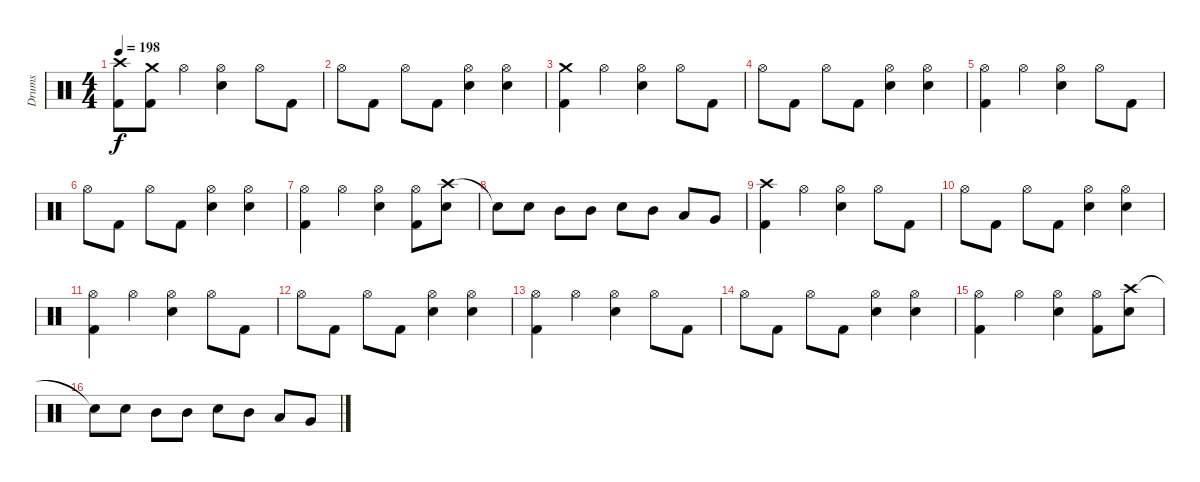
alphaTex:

\track ("Drums" "Drums") {instrument percussion}
\staff {score}
\articulation defaults
\ts (4 4)
\tempo 198
\clef neutral
\ks c
("Crash high (hit)" "Kick (hit) 2").8{dy f} ("Crash medium (hit)" "Kick (hit) 2").8 "Hi-Hat (open)".4 ("Hi-Hat (open)" "Snare (hit) 2").4 "Hi-Hat (open)".8 "Kick (hit) 2".8 |
"Hi-Hat (open)".8 "Kick (hit) 2".8 "Hi-Hat (open)".8 "Kick (hit) 2".8 ("Hi-Hat (open)" "Snare (hit) 2").4 ("Hi-Hat (open)" "Snare (hit) 2").4 |
("Crash medium (hit)" "Kick (hit) 2").4 "Hi-Hat (open)".4 ("Hi-Hat (open)" "Snare (hit) 2").4 "Hi-Hat (open)".8 "Kick (hit) 2".8 |
"Hi-Hat (open)".8 "Kick (hit) 2".8 "Hi-Hat (open)".8 "Kick (hit) 2".8 ("Hi-Hat (open)" "Snare (hit) 2").4 ("Hi-Hat (open)" "Snare (hit) 2").4 |
("Hi-Hat (open)" "Kick (hit) 2").4 "Hi-Hat (open)".4 ("Hi-Hat (open)" "Snare (hit) 2").4 "Hi-Hat (open)".8 "Kick (hit) 2".8 |
"Hi-Hat (open)".8 "Kick (hit) 2".8 "Hi-Hat (open)".8 "Kick (hit) 2".8 ("Hi-Hat (open)" "Snare (hit) 2").4 ("Hi-Hat (open)" "Snare (hit) 2").4 |
("Hi-Hat (open)" "Kick (hit) 2").4 "Hi-Hat (open)".4 ("Hi-Hat (open)" "Snare (hit) 2").4 ("Hi-Hat (open)" "Kick (hit) 2").8 ("Crash high (hit)" "Snare (hit) 2").8 |
"Snare (hit)"{t}.8 "Snare (hit) 2".8 "Mid Tom (hit)".8 "Mid Tom (hit)".8 "Snare (hit) 2".8 "Mid Tom (hit)".8 "Low Tom (hit)".8 "Very Low Tom (hit)".8 |
("Crash high (hit)" "Kick (hit) 2").4 "Hi-Hat (open)".4 ("Hi-Hat (open)" "Snare (hit) 2").4 "Hi-Hat (open)".8 "Kick (hit) 2".8 |
"Hi-Hat (open)".8 "Kick (hit) 2".8 "Hi-Hat (open)".8 "Kick (hit) 2".8 ("Hi-Hat (open)" "Snare (hit) 2").4 ("Hi-Hat (open)" "Snare (hit) 2").4 |
("Hi-Hat (open)" "Kick (hit) 2").4 "Hi-Hat (open)".4 ("Hi-Hat (open)" "Snare (hit) 2").4 "Hi-Hat (open)".8 "Kick (hit) 2".8 |
"Hi-Hat (open)".8 "Kick (hit) 2".8 "Hi-Hat (open)".8 "Kick (hit) 2".8 ("Hi-Hat (open)" "Snare (hit) 2").4 ("Hi-Hat (open)" "Snare (hit) 2").4 |
("Hi-Hat (open)" "Kick (hit) 2").4 "Hi-Hat (open)".4 ("Hi-Hat (open)" "Snare (hit) 2").4 "Hi-Hat (open)".8 "Kick (hit) 2".8 |
"Hi-Hat (open)".8 "Kick (hit) 2".8 "Hi-Hat (open)".8 "Kick (hit) 2".8 ("Hi-Hat (open)" "Snare (hit) 2").4 ("Hi-Hat (open)" "Snare (hit) 2").4 |
("Hi-Hat (open)" "Kick (hit) 2").4 "Hi-Hat (open)".4 ("Hi-Hat (open)" "Snare (hit) 2").4 ("Hi-Hat (open)" "Kick (hit) 2").8 ("Crash high (hit)" "Snare (hit) 2").8 |
"Snare (hit)"{t}.8 "Snare (hit) 2".8 "Mid Tom (hit)".8 "Mid Tom (hit)".8 "Snare (hit) 2".8 "Mid Tom (hit)".8 "Low Tom (hit)".8 "Very Low Tom (hit)".8
